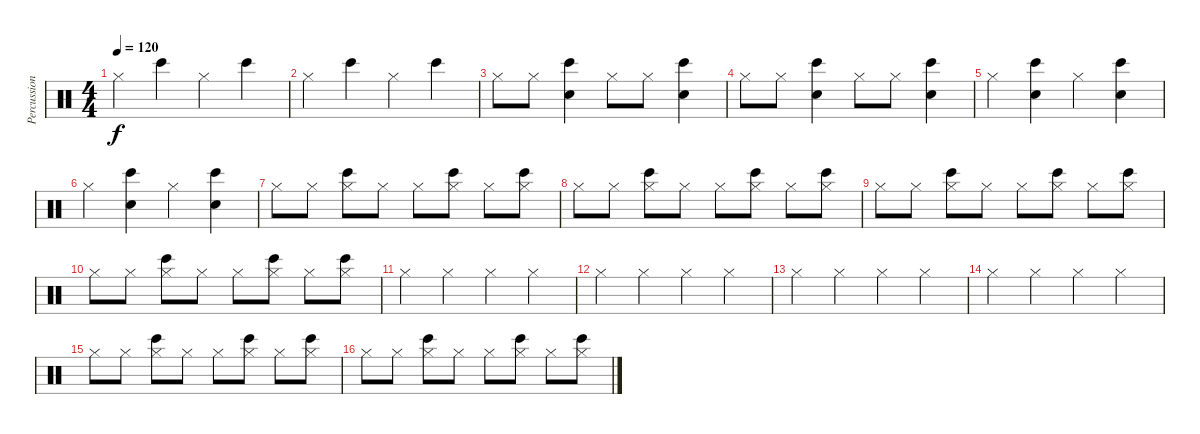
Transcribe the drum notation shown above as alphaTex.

\track ("Percussion" "Percussion") {instrument percussion}
\staff {score}
\articulation defaults
\ts (4 4)
\tempo 120
\clef neutral
\ks c "Hi-Hat (closed)".4{dy f} "Bongo High (hit)".4 "Hi-Hat (closed)".4 "Bongo High (hit)".4
|
"Hi-Hat (closed)".4 "Bongo High (hit)".4 "Hi-Hat (closed)".4 "Bongo High (hit)".4 |
"Hi-Hat (closed)".8 "Hi-Hat (closed)".8 ("Bongo High (hit)" "Hand Clap (hit)").4 "Hi-Hat (closed)".8 "Hi-Hat (closed)".8 ("Bongo High (hit)" "Hand Clap (hit)").4 |
"Hi-Hat (closed)".8 "Hi-Hat (closed)".8 ("Bongo High (hit)" "Hand Clap (hit)").4 "Hi-Hat (closed)".8 "Hi-Hat (closed)".8 ("Bongo High (hit)" "Hand Clap (hit)").4 |
"Hi-Hat (closed)".4 ("Bongo High (hit)" "Hand Clap (hit)").4 "Hi-Hat (closed)".4 ("Bongo High (hit)" "Hand Clap (hit)").4 |
"Hi-Hat (closed)".4 ("Bongo High (hit)" "Hand Clap (hit)").4 "Hi-Hat (closed)".4 ("Bongo High (hit)" "Hand Clap (hit)").4 |
"Hi-Hat (closed)".8 "Hi-Hat (closed)".8 ("Bongo High (hit)" "Hi-Hat (closed)").8 "Hi-Hat (closed)".8 "Hi-Hat (closed)".8 ("Bongo High (hit)" "Hi-Hat (closed)").8 "Hi-Hat (closed)".8 ("Bongo High (hit)" "Hi-Hat (closed)").8 |
"Hi-Hat (closed)".8 "Hi-Hat (closed)".8 ("Bongo High (hit)" "Hi-Hat (closed)").8 "Hi-Hat (closed)".8 "Hi-Hat (closed)".8 ("Bongo High (hit)" "Hi-Hat (closed)").8 "Hi-Hat (closed)".8 ("Bongo High (hit)" "Hi-Hat (closed)").8 |
"Hi-Hat (closed)".8 "Hi-Hat (closed)".8 ("Bongo High (hit)" "Hi-Hat (closed)").8 "Hi-Hat (closed)".8 "Hi-Hat (closed)".8 ("Bongo High (hit)" "Hi-Hat (closed)").8 "Hi-Hat (closed)".8 ("Bongo High (hit)" "Hi-Hat (closed)").8 |
"Hi-Hat (closed)".8 "Hi-Hat (closed)".8 ("Bongo High (hit)" "Hi-Hat (closed)").8 "Hi-Hat (closed)".8 "Hi-Hat (closed)".8 ("Bongo High (hit)" "Hi-Hat (closed)").8 "Hi-Hat (closed)".8 ("Bongo High (hit)" "Hi-Hat (closed)").8 |
"Hi-Hat (closed)".4 "Hi-Hat (closed)".4 "Hi-Hat (closed)".4 "Hi-Hat (closed)".4 |
"Hi-Hat (closed)".4 "Hi-Hat (closed)".4 "Hi-Hat (closed)".4 "Hi-Hat (closed)".4 |
"Hi-Hat (closed)".4 "Hi-Hat (closed)".4 "Hi-Hat (closed)".4 "Hi-Hat (closed)".4 |
"Hi-Hat (closed)".4 "Hi-Hat (closed)".4 "Hi-Hat (closed)".4 "Hi-Hat (closed)".4 |
"Hi-Hat (closed)".8 "Hi-Hat (closed)".8 ("Bongo High (hit)" "Hi-Hat (closed)").8 "Hi-Hat (closed)".8 "Hi-Hat (closed)".8 ("Bongo High (hit)" "Hi-Hat (closed)").8 "Hi-Hat (closed)".8 ("Bongo High (hit)" "Hi-Hat (closed)").8 |
"Hi-Hat (closed)".8 "Hi-Hat (closed)".8 ("Bongo High (hit)" "Hi-Hat (closed)").8 "Hi-Hat (closed)".8 "Hi-Hat (closed)".8 ("Bongo High (hit)" "Hi-Hat (closed)").8 "Hi-Hat (closed)".8 ("Bongo High (hit)" "Hi-Hat (closed)").8
